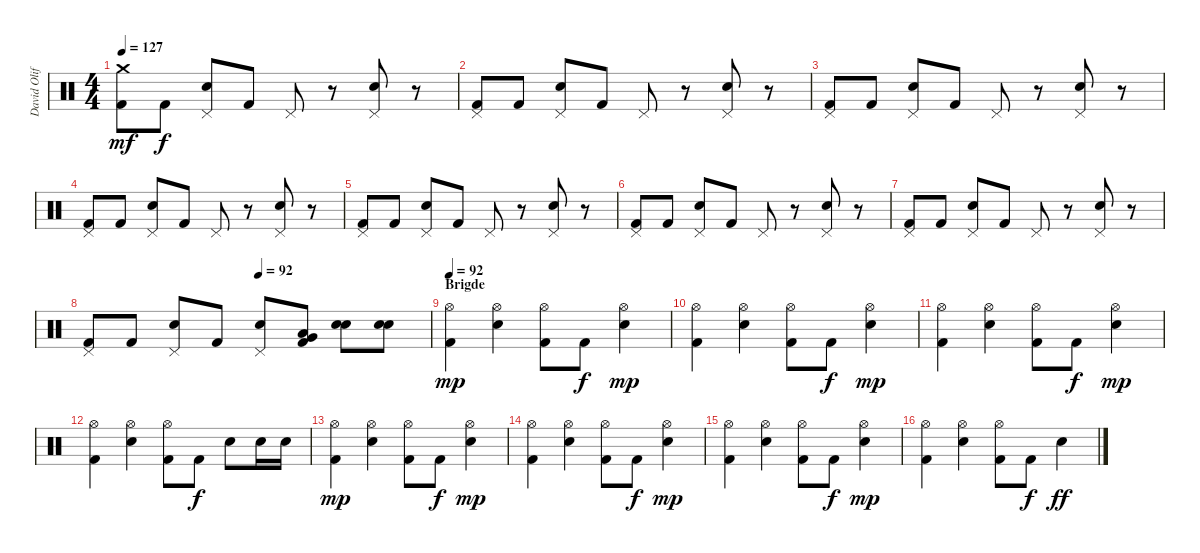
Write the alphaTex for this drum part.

\track ("David Oliffe" "David Olif") {instrument percussion}
\staff {score}
\articulation defaults
\ts (4 4)
\tempo 127
\clef neutral
\ks c
("Crash medium (hit)" "Kick (hit) 2").8{dy mf} "Kick (hit) 2".8{dy f} ("Pedal Hi-Hat (hit)" "Electric Snare (hit)").8 "Kick (hit) 2".8 "Pedal Hi-Hat (hit)".8 r.8 ("Pedal Hi-Hat (hit)" "Electric Snare (hit)").8 r.8 |
("Pedal Hi-Hat (hit)" "Kick (hit) 2").8 "Kick (hit) 2".8 ("Pedal Hi-Hat (hit)" "Electric Snare (hit)").8 "Kick (hit) 2".8 "Pedal Hi-Hat (hit)".8 r.8 ("Pedal Hi-Hat (hit)" "Electric Snare (hit)").8 r.8 |
("Pedal Hi-Hat (hit)" "Kick (hit) 2").8 "Kick (hit) 2".8 ("Pedal Hi-Hat (hit)" "Electric Snare (hit)").8 "Kick (hit) 2".8 "Pedal Hi-Hat (hit)".8 r.8 ("Pedal Hi-Hat (hit)" "Electric Snare (hit)").8 r.8 |
("Pedal Hi-Hat (hit)" "Kick (hit) 2").8 "Kick (hit) 2".8 ("Pedal Hi-Hat (hit)" "Electric Snare (hit)").8 "Kick (hit) 2".8 "Pedal Hi-Hat (hit)".8 r.8 ("Pedal Hi-Hat (hit)" "Electric Snare (hit)").8 r.8 |
("Pedal Hi-Hat (hit)" "Kick (hit) 2").8 "Kick (hit) 2".8 ("Pedal Hi-Hat (hit)" "Electric Snare (hit)").8 "Kick (hit) 2".8 "Pedal Hi-Hat (hit)".8 r.8 ("Pedal Hi-Hat (hit)" "Electric Snare (hit)").8 r.8 |
("Pedal Hi-Hat (hit)" "Kick (hit) 2").8 "Kick (hit) 2".8 ("Pedal Hi-Hat (hit)" "Electric Snare (hit)").8 "Kick (hit) 2".8 "Pedal Hi-Hat (hit)".8 r.8 ("Pedal Hi-Hat (hit)" "Electric Snare (hit)").8 r.8 |
("Pedal Hi-Hat (hit)" "Kick (hit) 2").8 "Kick (hit) 2".8 ("Pedal Hi-Hat (hit)" "Electric Snare (hit)").8 "Kick (hit) 2".8 "Pedal Hi-Hat (hit)".8 r.8 ("Pedal Hi-Hat (hit)" "Electric Snare (hit)").8 r.8 |
\tempo (92 0.5)
("Pedal Hi-Hat (hit)" "Kick (hit) 2").8 "Kick (hit) 2".8 ("Pedal Hi-Hat (hit)" "Electric Snare (hit)").8 "Kick (hit) 2".8 ("Pedal Hi-Hat (hit)" "Electric Snare (hit)").8 ("Low Tom (hit)" "Very Low Tom (hit)" "Kick (hit) 2").8 ("Electric Snare (hit)" "Electric Snare (hit)").8{bu 120} ("Electric Snare (hit)" "Electric Snare (hit)").8{bu 120} |
\section ("" "Brigde")
\tempo 92
("Hi-Hat (open)" "Kick (hit) 2").4{dy mp} ("Hi-Hat (open)" "Electric Snare (hit)").4 ("Hi-Hat (open)" "Kick (hit) 2").8 "Kick (hit) 2".8{dy f} ("Hi-Hat (open)" "Electric Snare (hit)").4{dy mp} |
("Hi-Hat (open)" "Kick (hit) 2").4 ("Hi-Hat (open)" "Electric Snare (hit)").4 ("Hi-Hat (open)" "Kick (hit) 2").8 "Kick (hit) 2".8{dy f} ("Hi-Hat (open)" "Electric Snare (hit)").4{dy mp} |
("Hi-Hat (open)" "Kick (hit) 2").4 ("Hi-Hat (open)" "Electric Snare (hit)").4 ("Hi-Hat (open)" "Kick (hit) 2").8 "Kick (hit) 2".8{dy f} ("Hi-Hat (open)" "Electric Snare (hit)").4{dy mp} |
("Hi-Hat (open)" "Kick (hit) 2").4 ("Hi-Hat (open)" "Electric Snare (hit)").4 ("Hi-Hat (open)" "Kick (hit) 2").8 "Kick (hit) 2".8{dy f} "Electric Snare (hit)".8 "Electric Snare (hit)".16 "Electric Snare (hit)".16 |
("Hi-Hat (open)" "Kick (hit) 2").4{dy mp} ("Hi-Hat (open)" "Electric Snare (hit)").4 ("Hi-Hat (open)" "Kick (hit) 2").8 "Kick (hit) 2".8{dy f} ("Hi-Hat (open)" "Electric Snare (hit)").4{dy mp} |
("Hi-Hat (open)" "Kick (hit) 2").4 ("Hi-Hat (open)" "Electric Snare (hit)").4 ("Hi-Hat (open)" "Kick (hit) 2").8 "Kick (hit) 2".8{dy f} ("Hi-Hat (open)" "Electric Snare (hit)").4{dy mp} |
("Hi-Hat (open)" "Kick (hit) 2").4 ("Hi-Hat (open)" "Electric Snare (hit)").4 ("Hi-Hat (open)" "Kick (hit) 2").8 "Kick (hit) 2".8{dy f} ("Hi-Hat (open)" "Electric Snare (hit)").4{dy mp} |
("Hi-Hat (open)" "Kick (hit) 2").4 ("Hi-Hat (open)" "Electric Snare (hit)").4 ("Hi-Hat (open)" "Kick (hit) 2").8 "Kick (hit) 2".8{dy f} "Electric Snare (hit)".4{dy ff}
